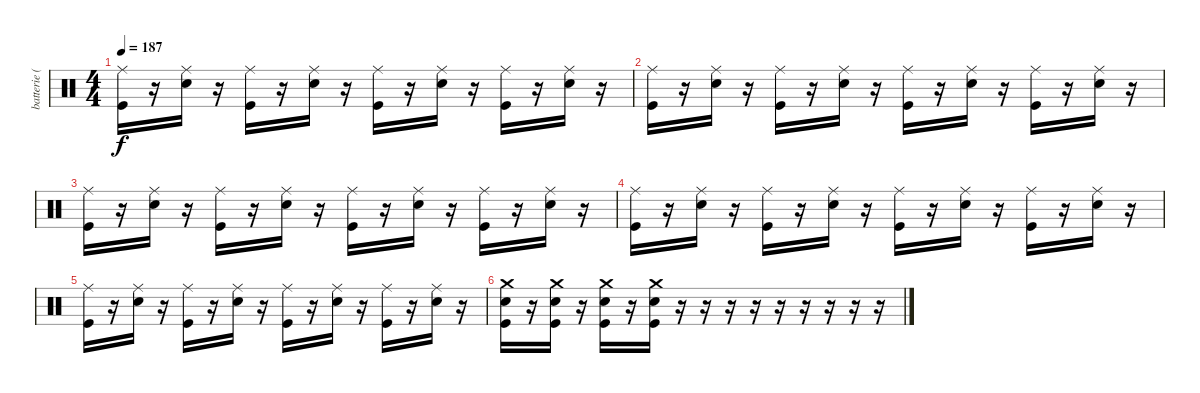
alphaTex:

\track ("batterie ( Mike ) " "batterie (") {instrument percussion}
\staff {score}
\articulation defaults
\ts (4 4)
\tempo 187
\clef neutral
\ks c
("Ride (middle)" "Kick (hit)").16{dy f} r.16 ("Ride (middle)" "Snare (hit) 2").16 r.16 ("Ride (middle)" "Kick (hit)").16 r.16 ("Ride (middle)" "Snare (hit) 2").16 r.16 ("Ride (middle)" "Kick (hit)").16 r.16 ("Ride (middle)" "Snare (hit) 2").16 r.16 ("Ride (middle)" "Kick (hit)").16 r.16 ("Ride (middle)" "Snare (hit) 2").16 r.16 |
("Ride (middle)" "Kick (hit)").16 r.16 ("Ride (middle)" "Snare (hit) 2").16 r.16 ("Ride (middle)" "Kick (hit)").16 r.16 ("Ride (middle)" "Snare (hit) 2").16 r.16 ("Ride (middle)" "Kick (hit)").16 r.16 ("Ride (middle)" "Snare (hit) 2").16 r.16 ("Ride (middle)" "Kick (hit)").16 r.16 ("Ride (middle)" "Snare (hit) 2").16 r.16 |
("Ride (middle)" "Kick (hit)").16 r.16 ("Ride (middle)" "Snare (hit) 2").16 r.16 ("Ride (middle)" "Kick (hit)").16 r.16 ("Ride (middle)" "Snare (hit) 2").16 r.16 ("Ride (middle)" "Kick (hit)").16 r.16 ("Ride (middle)" "Snare (hit) 2").16 r.16 ("Ride (middle)" "Kick (hit)").16 r.16 ("Ride (middle)" "Snare (hit) 2").16 r.16 |
("Ride (middle)" "Kick (hit)").16 r.16 ("Ride (middle)" "Snare (hit) 2").16 r.16 ("Ride (middle)" "Kick (hit)").16 r.16 ("Ride (middle)" "Snare (hit) 2").16 r.16 ("Ride (middle)" "Kick (hit)").16 r.16 ("Ride (middle)" "Snare (hit) 2").16 r.16 ("Ride (middle)" "Kick (hit)").16 r.16 ("Ride (middle)" "Snare (hit) 2").16 r.16 |
("Ride (middle)" "Kick (hit)").16 r.16 ("Ride (middle)" "Snare (hit) 2").16 r.16 ("Ride (middle)" "Kick (hit)").16 r.16 ("Ride (middle)" "Snare (hit) 2").16 r.16 ("Ride (middle)" "Kick (hit)").16 r.16 ("Ride (middle)" "Snare (hit) 2").16 r.16 ("Ride (middle)" "Kick (hit)").16 r.16 ("Ride (middle)" "Snare (hit) 2").16 r.16 |
("Crash medium (hit)" "Snare (hit) 2" "Kick (hit)").16 r.16 ("Crash medium (hit)" "Snare (hit) 2" "Kick (hit)").16 r.16 ("Crash medium (hit)" "Snare (hit) 2" "Kick (hit)").16 r.16 ("Crash medium (hit)" "Snare (hit) 2" "Kick (hit)").16 r.16 r.16 r.16 r.16 r.16 r.16 r.16 r.16 r.16
